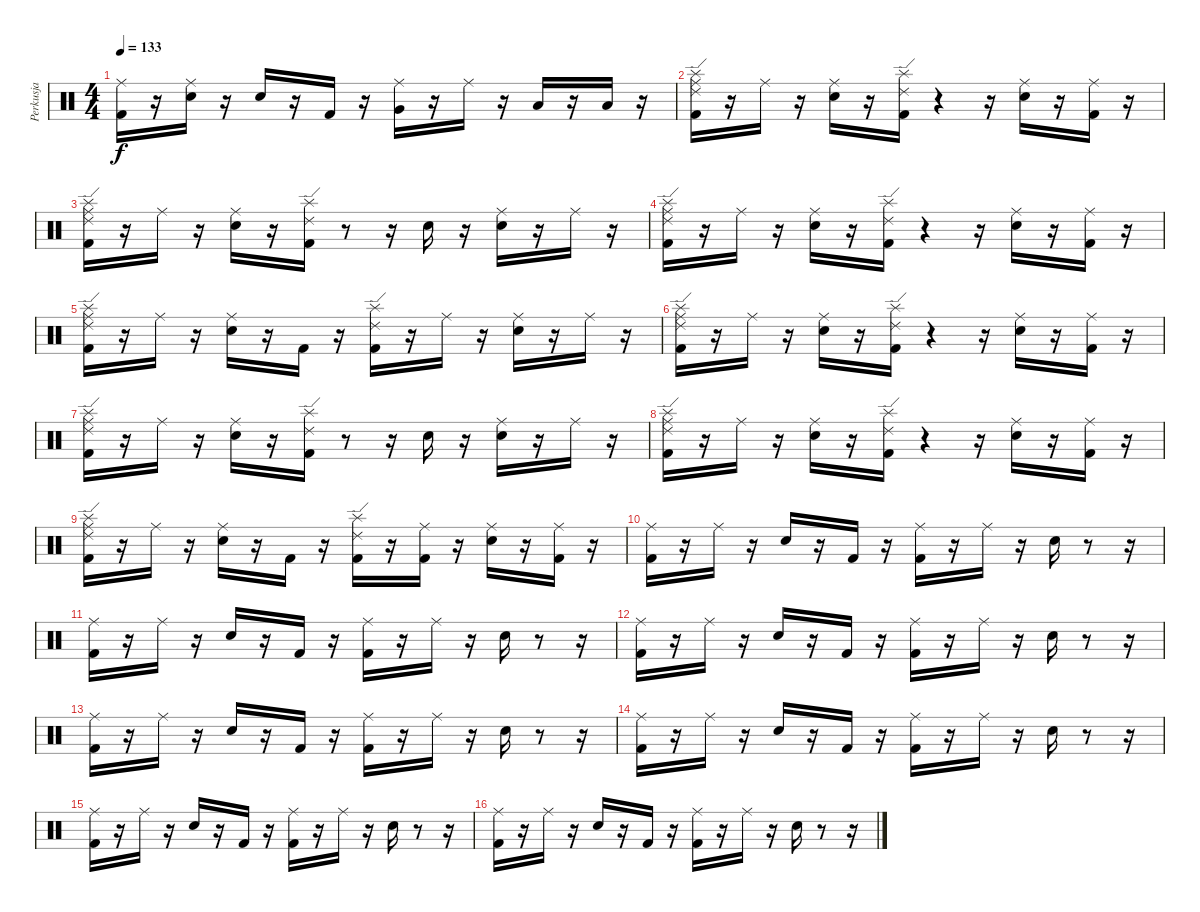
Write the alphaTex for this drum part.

\track ("Perkusja" "Perkusja") {instrument percussion}
\staff {score}
\articulation defaults
\ts (4 4)
\tempo 133
\clef neutral
\ks c
("Ride (middle)" "Kick (hit) 2").16{dy f} r.16 ("Snare (hit) 2" "Ride (middle)").16 r.16 "Snare (hit) 2".16 r.16 "Kick (hit) 2".16 r.16 ("Very Low Tom (hit)" "Ride (middle)").16 r.16 "Ride (middle)".16 r.16 "Low Floor Tom (hit)".16 r.16 "Low Floor Tom (hit)".16 r.16 |
("Ride (middle)" "Ride (edge) 2" "Splash (hit)" "Kick (hit) 2").16 r.16 "Ride (middle)".16 r.16 ("Ride (middle)" "Snare (hit) 2").16 r.16 ("Splash (hit)" "Ride (edge) 2" "Kick (hit) 2").16 r.4 r.16 ("Ride (middle)" "Snare (hit) 2").16 r.16 ("Ride (middle)" "Kick (hit) 2").16 r.16 |
("Ride (middle)" "Ride (edge) 2" "Splash (hit)" "Kick (hit) 2").16 r.16 "Ride (middle)".16 r.16 ("Ride (middle)" "Snare (hit) 2").16 r.16 ("Splash (hit)" "Ride (edge) 2" "Kick (hit) 2").16 r.8 r.16 "Snare (hit) 2".16 r.16 ("Ride (middle)" "Snare (hit) 2").16 r.16 "Ride (middle)".16 r.16 |
("Ride (middle)" "Ride (edge) 2" "Splash (hit)" "Kick (hit) 2").16 r.16 "Ride (middle)".16 r.16 ("Ride (middle)" "Snare (hit) 2").16 r.16 ("Splash (hit)" "Ride (edge) 2" "Kick (hit) 2").16 r.4 r.16 ("Ride (middle)" "Snare (hit) 2").16 r.16 ("Ride (middle)" "Kick (hit) 2").16 r.16 |
("Ride (middle)" "Ride (edge) 2" "Splash (hit)" "Kick (hit) 2").16 r.16 "Ride (middle)".16 r.16 ("Ride (middle)" "Snare (hit) 2").16 r.16 "Kick (hit) 2".16 r.16 ("Ride (edge) 2" "Splash (hit)" "Kick (hit) 2").16 r.16 "Ride (middle)".16 r.16 ("Ride (middle)" "Snare (hit) 2").16 r.16 "Ride (middle)".16 r.16 |
("Ride (middle)" "Ride (edge) 2" "Splash (hit)" "Kick (hit) 2").16 r.16 "Ride (middle)".16 r.16 ("Ride (middle)" "Snare (hit) 2").16 r.16 ("Splash (hit)" "Ride (edge) 2" "Kick (hit) 2").16 r.4 r.16 ("Ride (middle)" "Snare (hit) 2").16 r.16 ("Ride (middle)" "Kick (hit) 2").16 r.16 |
("Ride (middle)" "Ride (edge) 2" "Splash (hit)" "Kick (hit) 2").16 r.16 "Ride (middle)".16 r.16 ("Ride (middle)" "Snare (hit) 2").16 r.16 ("Splash (hit)" "Ride (edge) 2" "Kick (hit) 2").16 r.8 r.16 "Snare (hit) 2".16 r.16 ("Ride (middle)" "Snare (hit) 2").16 r.16 "Ride (middle)".16 r.16 |
("Ride (middle)" "Ride (edge) 2" "Splash (hit)" "Kick (hit) 2").16 r.16 "Ride (middle)".16 r.16 ("Ride (middle)" "Snare (hit) 2").16 r.16 ("Splash (hit)" "Ride (edge) 2" "Kick (hit) 2").16 r.4 r.16 ("Ride (middle)" "Snare (hit) 2").16 r.16 ("Ride (middle)" "Kick (hit) 2").16 r.16 |
("Ride (middle)" "Ride (edge) 2" "Splash (hit)" "Kick (hit) 2").16 r.16 "Ride (middle)".16 r.16 ("Ride (middle)" "Snare (hit) 2").16 r.16 "Kick (hit) 2".16 r.16 ("Ride (edge) 2" "Splash (hit)" "Kick (hit) 2").16 r.16 ("Kick (hit) 2" "Ride (middle)").16 r.16 ("Ride (middle)" "Snare (hit) 2").16 r.16 ("Kick (hit) 2" "Ride (middle)").16 r.16 |
("Ride (middle)" "Kick (hit) 2").16 r.16 "Ride (middle)".16 r.16 "Snare (hit) 2".16 r.16 "Kick (hit) 2".16 r.16 ("Ride (middle)" "Kick (hit) 2").16 r.16 "Ride (middle)".16 r.16 "Snare (hit) 2".16 r.8 r.16 |
("Kick (hit) 2" "Ride (middle)").16 r.16 "Ride (middle)".16 r.16 "Snare (hit) 2".16 r.16 "Kick (hit) 2".16 r.16 ("Ride (middle)" "Kick (hit) 2").16 r.16 "Ride (middle)".16 r.16 "Snare (hit) 2".16 r.8 r.16 |
("Ride (middle)" "Kick (hit) 2").16 r.16 "Ride (middle)".16 r.16 "Snare (hit) 2".16 r.16 "Kick (hit) 2".16 r.16 ("Ride (middle)" "Kick (hit) 2").16 r.16 "Ride (middle)".16 r.16 "Snare (hit) 2".16 r.8 r.16 |
("Kick (hit) 2" "Ride (middle)").16 r.16 "Ride (middle)".16 r.16 "Snare (hit) 2".16 r.16 "Kick (hit) 2".16 r.16 ("Ride (middle)" "Kick (hit) 2").16 r.16 "Ride (middle)".16 r.16 "Snare (hit) 2".16 r.8 r.16 |
("Ride (middle)" "Kick (hit) 2").16 r.16 "Ride (middle)".16 r.16 "Snare (hit) 2".16 r.16 "Kick (hit) 2".16 r.16 ("Ride (middle)" "Kick (hit) 2").16 r.16 "Ride (middle)".16 r.16 "Snare (hit) 2".16 r.8 r.16 |
("Kick (hit) 2" "Ride (middle)").16 r.16 "Ride (middle)".16 r.16 "Snare (hit) 2".16 r.16 "Kick (hit) 2".16 r.16 ("Ride (middle)" "Kick (hit) 2").16 r.16 "Ride (middle)".16 r.16 "Snare (hit) 2".16 r.8 r.16 |
("Ride (middle)" "Kick (hit) 2").16 r.16 "Ride (middle)".16 r.16 "Snare (hit) 2".16 r.16 "Kick (hit) 2".16 r.16 ("Ride (middle)" "Kick (hit) 2").16 r.16 "Ride (middle)".16 r.16 "Snare (hit) 2".16 r.8 r.16
